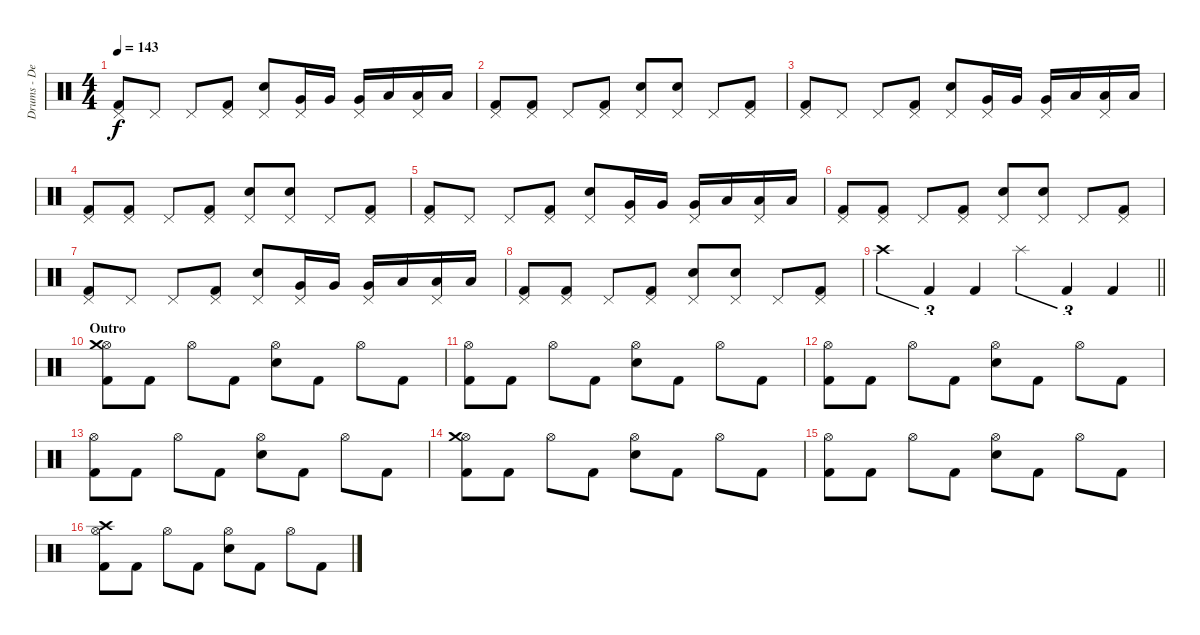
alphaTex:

\track ("Drums - Dennis Poschwatta" "Drums - De") {instrument percussion}
\staff {score}
\articulation defaults
\ts (4 4)
\tempo 143
\clef neutral
\ks c
("Pedal Hi-Hat (hit)" "Kick (hit) 2").8{dy f} "Pedal Hi-Hat (hit)".8 "Pedal Hi-Hat (hit)".8 ("Pedal Hi-Hat (hit)" "Kick (hit) 2").8 ("Pedal Hi-Hat (hit)" "Electric Snare (hit)").8 ("Pedal Hi-Hat (hit)" "Very Low Tom (hit)").16 "Very Low Tom (hit)".16 ("Pedal Hi-Hat (hit)" "Very Low Tom (hit)").16 "Low Floor Tom (hit)".16 ("Pedal Hi-Hat (hit)" "Low Floor Tom (hit)").16 "Low Floor Tom (hit)".16 |
("Pedal Hi-Hat (hit)" "Kick (hit) 2").8 ("Pedal Hi-Hat (hit)" "Kick (hit) 2").8 "Pedal Hi-Hat (hit)".8 ("Pedal Hi-Hat (hit)" "Kick (hit) 2").8 ("Pedal Hi-Hat (hit)" "Electric Snare (hit)").8 ("Pedal Hi-Hat (hit)" "Electric Snare (hit)").8 "Pedal Hi-Hat (hit)".8 ("Pedal Hi-Hat (hit)" "Kick (hit) 2").8 |
("Pedal Hi-Hat (hit)" "Kick (hit) 2").8 "Pedal Hi-Hat (hit)".8 "Pedal Hi-Hat (hit)".8 ("Pedal Hi-Hat (hit)" "Kick (hit) 2").8 ("Pedal Hi-Hat (hit)" "Electric Snare (hit)").8 ("Pedal Hi-Hat (hit)" "Very Low Tom (hit)").16 "Very Low Tom (hit)".16 ("Pedal Hi-Hat (hit)" "Very Low Tom (hit)").16 "Low Floor Tom (hit)".16 ("Pedal Hi-Hat (hit)" "Low Floor Tom (hit)").16 "Low Floor Tom (hit)".16 |
("Pedal Hi-Hat (hit)" "Kick (hit) 2").8 ("Pedal Hi-Hat (hit)" "Kick (hit) 2").8 "Pedal Hi-Hat (hit)".8 ("Pedal Hi-Hat (hit)" "Kick (hit) 2").8 ("Pedal Hi-Hat (hit)" "Electric Snare (hit)").8 ("Pedal Hi-Hat (hit)" "Electric Snare (hit)").8 "Pedal Hi-Hat (hit)".8 ("Pedal Hi-Hat (hit)" "Kick (hit) 2").8 |
("Pedal Hi-Hat (hit)" "Kick (hit) 2").8 "Pedal Hi-Hat (hit)".8 "Pedal Hi-Hat (hit)".8 ("Pedal Hi-Hat (hit)" "Kick (hit) 2").8 ("Pedal Hi-Hat (hit)" "Electric Snare (hit)").8 ("Pedal Hi-Hat (hit)" "Very Low Tom (hit)").16 "Very Low Tom (hit)".16 ("Pedal Hi-Hat (hit)" "Very Low Tom (hit)").16 "Low Floor Tom (hit)".16 ("Pedal Hi-Hat (hit)" "Low Floor Tom (hit)").16 "Low Floor Tom (hit)".16 |
("Pedal Hi-Hat (hit)" "Kick (hit) 2").8 ("Pedal Hi-Hat (hit)" "Kick (hit) 2").8 "Pedal Hi-Hat (hit)".8 ("Pedal Hi-Hat (hit)" "Kick (hit) 2").8 ("Pedal Hi-Hat (hit)" "Electric Snare (hit)").8 ("Pedal Hi-Hat (hit)" "Electric Snare (hit)").8 "Pedal Hi-Hat (hit)".8 ("Pedal Hi-Hat (hit)" "Kick (hit) 2").8 |
("Pedal Hi-Hat (hit)" "Kick (hit) 2").8 "Pedal Hi-Hat (hit)".8 "Pedal Hi-Hat (hit)".8 ("Pedal Hi-Hat (hit)" "Kick (hit) 2").8 ("Pedal Hi-Hat (hit)" "Electric Snare (hit)").8 ("Pedal Hi-Hat (hit)" "Very Low Tom (hit)").16 "Very Low Tom (hit)".16 ("Pedal Hi-Hat (hit)" "Very Low Tom (hit)").16 "Low Floor Tom (hit)".16 ("Pedal Hi-Hat (hit)" "Low Floor Tom (hit)").16 "Low Floor Tom (hit)".16 |
("Pedal Hi-Hat (hit)" "Kick (hit) 2").8 ("Pedal Hi-Hat (hit)" "Kick (hit) 2").8 "Pedal Hi-Hat (hit)".8 ("Pedal Hi-Hat (hit)" "Kick (hit) 2").8 ("Pedal Hi-Hat (hit)" "Electric Snare (hit)").8 ("Pedal Hi-Hat (hit)" "Electric Snare (hit)").8 "Pedal Hi-Hat (hit)".8 ("Pedal Hi-Hat (hit)" "Kick (hit) 2").8 |
\barLineRight lightlight "Crash high (hit)".4{tu (3 2)} "Kick (hit) 2".4{tu (3 2)} "Kick (hit) 2".4{tu (3 2)} "Splash (hit)".4{tu (3 2)} "Kick (hit) 2".4{tu (3 2)} "Kick (hit) 2".4{tu (3 2)}
|
\section ("" "Outro")
("Hi-Hat (open)" "Crash medium (hit)" "Kick (hit) 2").8 "Kick (hit) 2".8 "Hi-Hat (open)".8 "Kick (hit) 2".8 ("Hi-Hat (open)" "Electric Snare (hit)").8 "Kick (hit) 2".8 "Hi-Hat (open)".8 "Kick (hit) 2".8 |
("Hi-Hat (open)" "Kick (hit) 2").8 "Kick (hit) 2".8 "Hi-Hat (open)".8 "Kick (hit) 2".8 ("Hi-Hat (open)" "Electric Snare (hit)").8 "Kick (hit) 2".8 "Hi-Hat (open)".8 "Kick (hit) 2".8 |
("Hi-Hat (open)" "Kick (hit) 2").8 "Kick (hit) 2".8 "Hi-Hat (open)".8 "Kick (hit) 2".8 ("Hi-Hat (open)" "Electric Snare (hit)").8 "Kick (hit) 2".8 "Hi-Hat (open)".8 "Kick (hit) 2".8 |
("Hi-Hat (open)" "Kick (hit) 2").8 "Kick (hit) 2".8 "Hi-Hat (open)".8 "Kick (hit) 2".8 ("Hi-Hat (open)" "Electric Snare (hit)").8 "Kick (hit) 2".8 "Hi-Hat (open)".8 "Kick (hit) 2".8 |
("Hi-Hat (open)" "Crash medium (hit)" "Kick (hit) 2").8 "Kick (hit) 2".8 "Hi-Hat (open)".8 "Kick (hit) 2".8 ("Hi-Hat (open)" "Electric Snare (hit)").8 "Kick (hit) 2".8 "Hi-Hat (open)".8 "Kick (hit) 2".8 |
("Hi-Hat (open)" "Kick (hit) 2").8 "Kick (hit) 2".8 "Hi-Hat (open)".8 "Kick (hit) 2".8 ("Hi-Hat (open)" "Electric Snare (hit)").8 "Kick (hit) 2".8 "Hi-Hat (open)".8 "Kick (hit) 2".8 |
("Hi-Hat (open)" "Crash high (hit)" "Kick (hit) 2").8 "Kick (hit) 2".8 "Hi-Hat (open)".8 "Kick (hit) 2".8 ("Hi-Hat (open)" "Electric Snare (hit)").8 "Kick (hit) 2".8 "Hi-Hat (open)".8 "Kick (hit) 2".8
